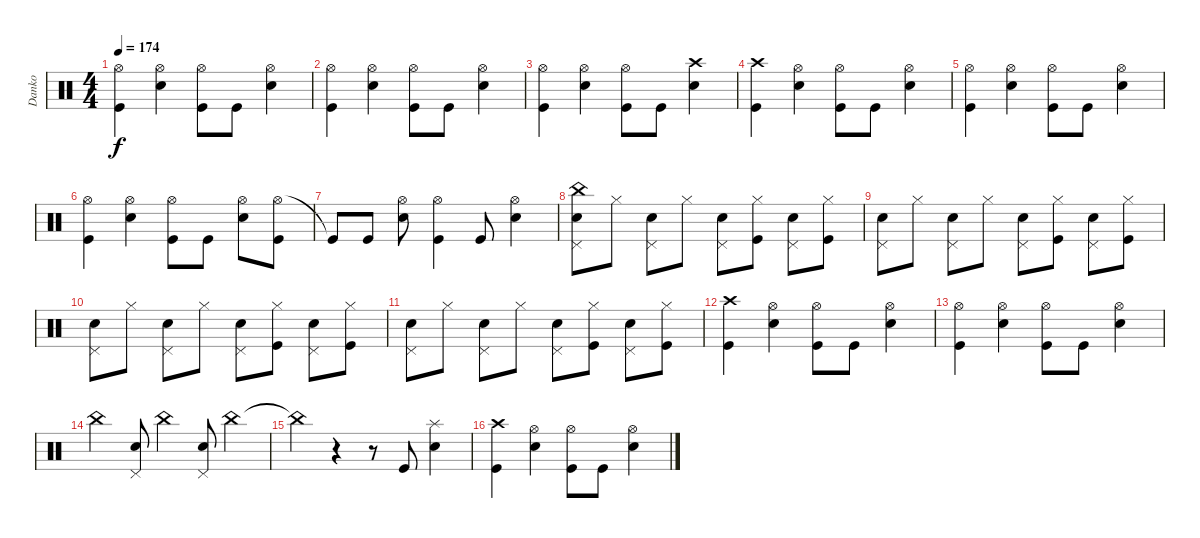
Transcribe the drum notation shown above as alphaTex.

\track ("Danko" "Danko") {instrument percussion}
\staff {score}
\articulation defaults
\ts (4 4)
\tempo 174
\clef neutral
\ks c
("Hi-Hat (open)" "Kick (hit)").4{dy f} ("Hi-Hat (open)" "Snare (hit) 2").4 ("Hi-Hat (open)" "Kick (hit)").8 "Kick (hit)".8 ("Hi-Hat (open)" "Snare (hit) 2").4 |
("Hi-Hat (open)" "Kick (hit)").4 ("Hi-Hat (open)" "Snare (hit) 2").4 ("Hi-Hat (open)" "Kick (hit)").8 "Kick (hit)".8 ("Hi-Hat (open)" "Snare (hit) 2").4 |
("Hi-Hat (open)" "Kick (hit)").4 ("Hi-Hat (open)" "Snare (hit) 2").4 ("Hi-Hat (open)" "Kick (hit)").8 "Kick (hit)".8 ("Crash high (hit)" "Snare (hit) 2").4 |
("Crash high (hit)" "Kick (hit)").4 ("Hi-Hat (open)" "Snare (hit) 2").4 ("Hi-Hat (open)" "Kick (hit)").8 "Kick (hit)".8 ("Hi-Hat (open)" "Snare (hit) 2").4 |
("Hi-Hat (open)" "Kick (hit)").4 ("Hi-Hat (open)" "Snare (hit) 2").4 ("Hi-Hat (open)" "Kick (hit)").8 "Kick (hit)".8 ("Hi-Hat (open)" "Snare (hit) 2").4 |
("Hi-Hat (open)" "Kick (hit)").4 ("Hi-Hat (open)" "Snare (hit) 2").4 ("Hi-Hat (open)" "Kick (hit)").8 "Kick (hit)".8 ("Hi-Hat (open)" "Snare (hit) 2").8 ("Hi-Hat (open)" "Kick (hit)").8 |
"Kick (hit)"{t}.8 "Kick (hit)".8 ("Hi-Hat (open)" "Snare (hit) 2").8 ("Hi-Hat (open)" "Kick (hit)").4 "Kick (hit)".8 ("Snare (hit) 2" "Hi-Hat (open)").4 |
("Pedal Hi-Hat (hit)" "Snare (hit) 2" "China (hit)").8 "Hi-Hat (closed)".8 ("Pedal Hi-Hat (hit)" "Snare (hit) 2").8 "Hi-Hat (closed)".8 ("Pedal Hi-Hat (hit)" "Snare (hit) 2").8 ("Hi-Hat (closed)" "Kick (hit)").8 ("Pedal Hi-Hat (hit)" "Snare (hit) 2").8 ("Hi-Hat (closed)" "Kick (hit)").8 |
("Pedal Hi-Hat (hit)" "Snare (hit) 2").8 "Hi-Hat (closed)".8 ("Pedal Hi-Hat (hit)" "Snare (hit) 2").8 "Hi-Hat (closed)".8 ("Pedal Hi-Hat (hit)" "Snare (hit) 2").8 ("Hi-Hat (closed)" "Kick (hit)").8 ("Pedal Hi-Hat (hit)" "Snare (hit) 2").8 ("Hi-Hat (closed)" "Kick (hit)").8 |
("Pedal Hi-Hat (hit)" "Snare (hit) 2").8 "Hi-Hat (closed)".8 ("Pedal Hi-Hat (hit)" "Snare (hit) 2").8 "Hi-Hat (closed)".8 ("Pedal Hi-Hat (hit)" "Snare (hit) 2").8 ("Hi-Hat (closed)" "Kick (hit)").8 ("Pedal Hi-Hat (hit)" "Snare (hit) 2").8 ("Hi-Hat (closed)" "Kick (hit)").8 |
("Pedal Hi-Hat (hit)" "Snare (hit) 2").8 "Hi-Hat (closed)".8 ("Pedal Hi-Hat (hit)" "Snare (hit) 2").8 "Hi-Hat (closed)".8 ("Pedal Hi-Hat (hit)" "Snare (hit) 2").8 ("Hi-Hat (closed)" "Kick (hit)").8 ("Pedal Hi-Hat (hit)" "Snare (hit) 2").8 ("Hi-Hat (closed)" "Kick (hit)").8 |
("Crash high (hit)" "Kick (hit)").4 ("Hi-Hat (open)" "Snare (hit) 2").4 ("Hi-Hat (open)" "Kick (hit)").8 "Kick (hit)".8 ("Hi-Hat (open)" "Snare (hit) 2").4 |
("Hi-Hat (open)" "Kick (hit)").4 ("Hi-Hat (open)" "Snare (hit) 2").4 ("Hi-Hat (open)" "Kick (hit)").8 "Kick (hit)".8 ("Hi-Hat (open)" "Snare (hit) 2").4 |
"China (hit)".4 ("Snare (hit) 2" "Pedal Hi-Hat (hit)").8 "China (hit)".4 ("Snare (hit) 2" "Pedal Hi-Hat (hit)").8 "China (hit)".4 |
"China (hit)"{t}.4 r.4 r.8 "Kick (hit)".8 ("Snare (hit) 2" "Splash (hit)").4 |
("Crash high (hit)" "Kick (hit)").4 ("Hi-Hat (open)" "Snare (hit) 2").4 ("Hi-Hat (open)" "Kick (hit)").8 "Kick (hit)".8 ("Hi-Hat (open)" "Snare (hit) 2").4
